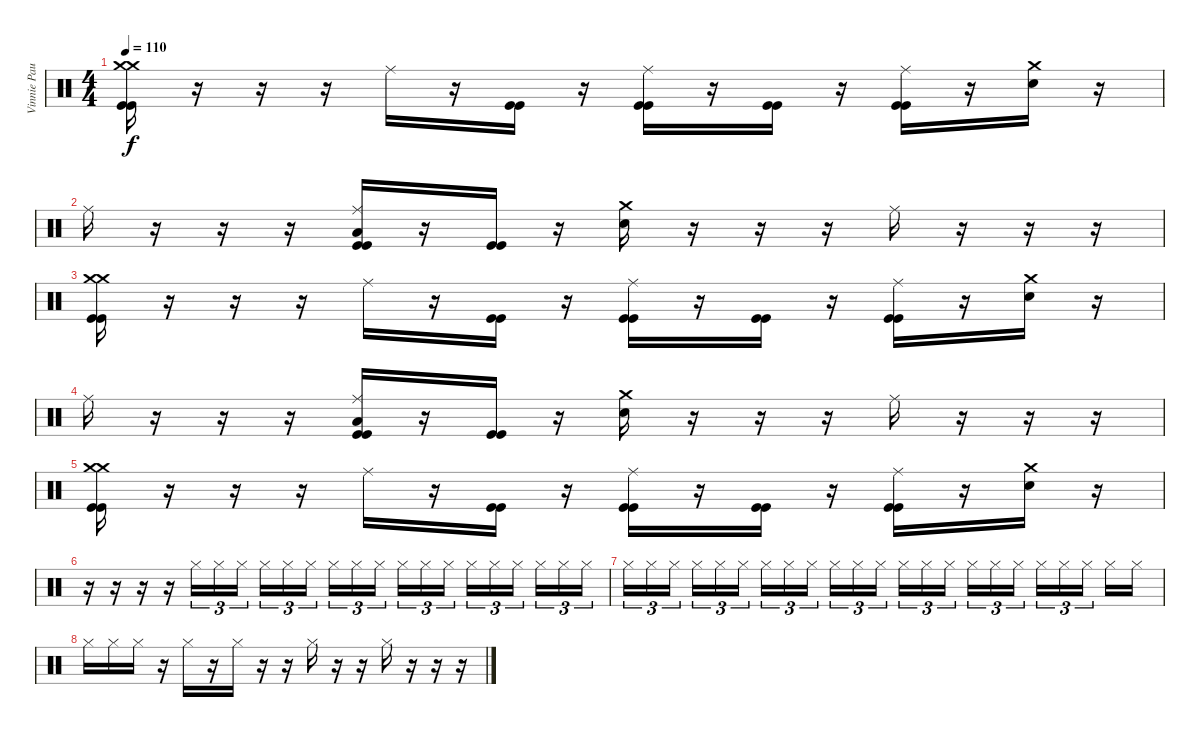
\track ("Vinnie Paul " "Vinnie Pau") {instrument percussion}
\staff {score}
\articulation defaults
\ts (4 4)
\tempo 110
\clef neutral
\ks c
("Crash medium (hit)" "Crash medium (hit)" "Kick (hit)" "Kick (hit)").16{dy f} r.16 r.16 r.16 "Ride (middle)".16 r.16 ("Kick (hit)" "Kick (hit)").16 r.16 ("Ride (middle)" "Kick (hit)" "Kick (hit)").16 r.16 ("Kick (hit)" "Kick (hit)").16 r.16 ("Ride (middle)" "Kick (hit)" "Kick (hit)").16 r.16 ("Crash medium (hit)" "Snare (hit) 2").16 r.16 |
"Ride (middle)".16 r.16 r.16 r.16 ("Ride (middle)" "Low Tom (hit)" "Kick (hit)" "Kick (hit)").16 r.16 ("Kick (hit)" "Kick (hit)").16 r.16 ("Crash medium (hit)" "Snare (hit) 2").16 r.16 r.16 r.16 "Ride (middle)".16 r.16 r.16 r.16 |
("Crash medium (hit)" "Crash medium (hit)" "Kick (hit)" "Kick (hit)").16 r.16 r.16 r.16 "Ride (middle)".16 r.16 ("Kick (hit)" "Kick (hit)").16 r.16 ("Ride (middle)" "Kick (hit)" "Kick (hit)").16 r.16 ("Kick (hit)" "Kick (hit)").16 r.16 ("Ride (middle)" "Kick (hit)" "Kick (hit)").16 r.16 ("Crash medium (hit)" "Snare (hit) 2").16 r.16 |
"Ride (middle)".16 r.16 r.16 r.16 ("Ride (middle)" "Low Tom (hit)" "Kick (hit)" "Kick (hit)").16 r.16 ("Kick (hit)" "Kick (hit)").16 r.16 ("Crash medium (hit)" "Snare (hit) 2").16 r.16 r.16 r.16 "Ride (middle)".16 r.16 r.16 r.16 |
("Crash medium (hit)" "Crash medium (hit)" "Kick (hit)" "Kick (hit)").16 r.16 r.16 r.16 "Ride (middle)".16 r.16 ("Kick (hit)" "Kick (hit)").16 r.16 ("Ride (middle)" "Kick (hit)" "Kick (hit)").16 r.16 ("Kick (hit)" "Kick (hit)").16 r.16 ("Ride (middle)" "Kick (hit)" "Kick (hit)").16 r.16 ("Crash medium (hit)" "Snare (hit) 2").16 r.16 |
r.16 r.16 r.16 r.16 "Hi-Hat (closed)".16{tu (3 2) volume 6} "Hi-Hat (closed)".16{tu (3 2) volume 6} "Hi-Hat (closed)".16{tu (3 2) volume 6} "Hi-Hat (closed)".16{tu (3 2) volume 6} "Hi-Hat (closed)".16{tu (3 2) volume 6} "Hi-Hat (closed)".16{tu (3 2) volume 6} "Hi-Hat (closed)".16{tu (3 2) volume 6} "Hi-Hat (closed)".16{tu (3 2) volume 6} "Hi-Hat (closed)".16{tu (3 2) volume 6} "Hi-Hat (closed)".16{tu (3 2) volume 6} "Hi-Hat (closed)".16{tu (3 2) volume 6} "Hi-Hat (closed)".16{tu (3 2) volume 6} "Hi-Hat (closed)".16{tu (3 2) volume 6} "Hi-Hat (closed)".16{tu (3 2) volume 6} "Hi-Hat (closed)".16{tu (3 2) volume 6} "Hi-Hat (closed)".16{tu (3 2) volume 6} "Hi-Hat (closed)".16{tu (3 2) volume 6} "Hi-Hat (closed)".16{tu (3 2) volume 6} |
"Hi-Hat (closed)".16{tu (3 2) volume 6} "Hi-Hat (closed)".16{tu (3 2) volume 6} "Hi-Hat (closed)".16{tu (3 2) volume 6} "Hi-Hat (closed)".16{tu (3 2) volume 6} "Hi-Hat (closed)".16{tu (3 2) volume 6} "Hi-Hat (closed)".16{tu (3 2) volume 6} "Hi-Hat (closed)".16{tu (3 2) volume 6} "Hi-Hat (closed)".16{tu (3 2) volume 6} "Hi-Hat (closed)".16{tu (3 2) volume 6} "Hi-Hat (closed)".16{tu (3 2) volume 6} "Hi-Hat (closed)".16{tu (3 2) volume 6} "Hi-Hat (closed)".16{tu (3 2) volume 6} "Hi-Hat (closed)".16{tu (3 2) volume 6} "Hi-Hat (closed)".16{tu (3 2) volume 6} "Hi-Hat (closed)".16{tu (3 2) volume 6} "Hi-Hat (closed)".16{tu (3 2) volume 6} "Hi-Hat (closed)".16{tu (3 2) volume 6} "Hi-Hat (closed)".16{tu (3 2) volume 6} "Hi-Hat (closed)".16{tu (3 2) volume 6} "Hi-Hat (closed)".16{tu (3 2) volume 6} "Hi-Hat (closed)".16{tu (3 2) volume 6} "Hi-Hat (closed)".16{volume 6} "Hi-Hat (closed)".16{volume 6} |
"Hi-Hat (closed)".16{volume 6} "Hi-Hat (closed)".16{volume 6} "Hi-Hat (closed)".16{volume 6} r.16 "Hi-Hat (closed)".16{volume 6} r.16 "Hi-Hat (closed)".16{volume 6} r.16 r.16 "Hi-Hat (closed)".16{volume 6} r.16 r.16 "Hi-Hat (closed)".16{volume 6} r.16 r.16 r.16
